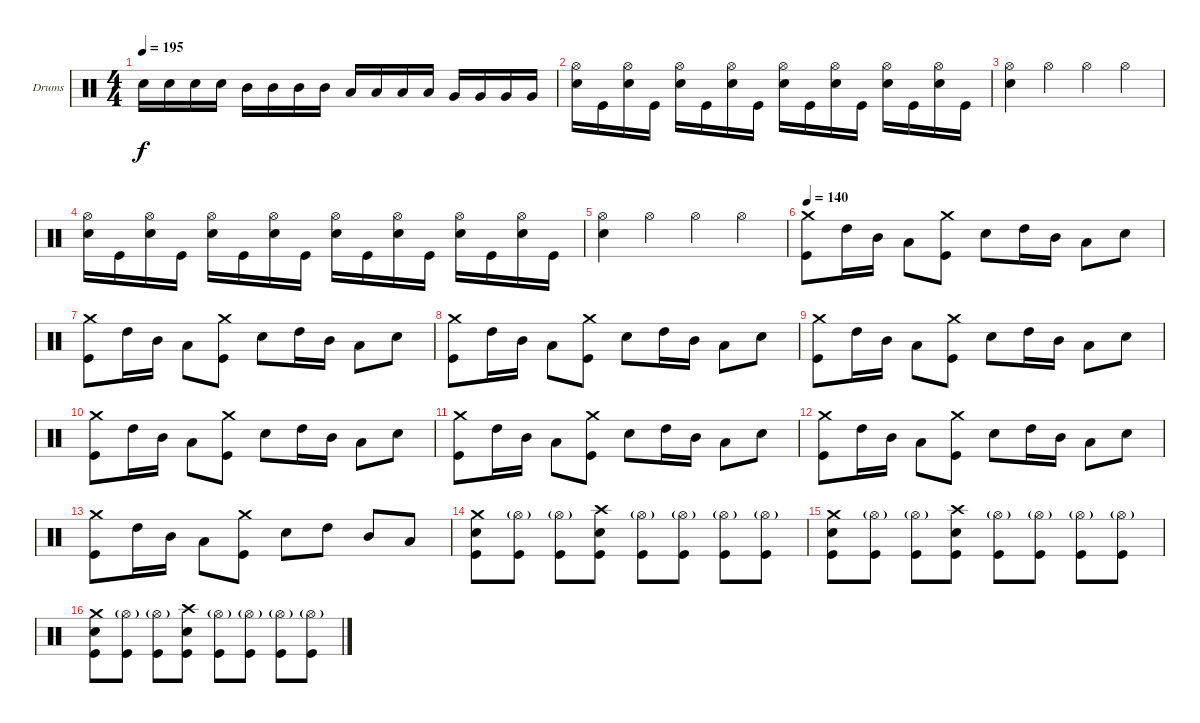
\bracketExtendMode groupsimilarinstruments
\firstSystemTrackNameOrientation horizontal
\otherSystemsTrackNameOrientation horizontal
\track ("Дмитрий Кривенков" "Drums") {instrument percussion}
\staff {score}
\articulation defaults
\ts (4 4)
\tempo 195
\clef neutral
\ks c "Snare (hit) 2".16{dy f} "Snare (hit) 2".16 "Snare (hit) 2".16 "Snare (hit) 2".16 "Mid Tom (hit)".16 "Mid Tom (hit)".16 "Mid Tom (hit)".16 "Mid Tom (hit)".16 "Low Tom (hit)".16 "Low Tom (hit)".16 "Low Tom (hit)".16 "Low Tom (hit)".16 "Very Low Tom (hit)".16 "Very Low Tom (hit)".16 "Very Low Tom (hit)".16 "Very Low Tom (hit)".16
|
("Hi-Hat (open)" "Snare (hit) 2").16 "Kick (hit)".16 ("Hi-Hat (open)" "Snare (hit) 2").16 "Kick (hit)".16 ("Hi-Hat (open)" "Snare (hit) 2").16 "Kick (hit)".16 ("Hi-Hat (open)" "Snare (hit) 2").16 "Kick (hit)".16 ("Hi-Hat (open)" "Snare (hit) 2").16 "Kick (hit)".16 ("Hi-Hat (open)" "Snare (hit) 2").16 "Kick (hit)".16 ("Hi-Hat (open)" "Snare (hit) 2").16 "Kick (hit)".16 ("Hi-Hat (open)" "Snare (hit) 2").16 "Kick (hit)".16 |
("Hi-Hat (open)" "Snare (hit) 2").4 "Hi-Hat (open)".4 "Hi-Hat (open)".4 "Hi-Hat (open)".4 |
("Hi-Hat (open)" "Snare (hit) 2").16 "Kick (hit)".16 ("Hi-Hat (open)" "Snare (hit) 2").16 "Kick (hit)".16 ("Hi-Hat (open)" "Snare (hit) 2").16 "Kick (hit)".16 ("Hi-Hat (open)" "Snare (hit) 2").16 "Kick (hit)".16 ("Hi-Hat (open)" "Snare (hit) 2").16 "Kick (hit)".16 ("Hi-Hat (open)" "Snare (hit) 2").16 "Kick (hit)".16 ("Hi-Hat (open)" "Snare (hit) 2").16 "Kick (hit)".16 ("Hi-Hat (open)" "Snare (hit) 2").16 "Kick (hit)".16 |
("Hi-Hat (open)" "Snare (hit) 2").4 "Hi-Hat (open)".4 "Hi-Hat (open)".4 "Hi-Hat (open)".4 |
\tempo 140
("Crash medium (hit)" "Kick (hit)").8 "High Tom (hit)".16 "Mid Tom (hit)".16 "Low Tom (hit)".8 ("Crash medium (hit)" "Kick (hit)").8 "Snare (hit) 2".8 "High Tom (hit)".16 "Mid Tom (hit)".16 "Low Tom (hit)".8 "Snare (hit) 2".8 |
("Crash medium (hit)" "Kick (hit)").8 "High Tom (hit)".16 "Mid Tom (hit)".16 "Low Tom (hit)".8 ("Crash medium (hit)" "Kick (hit)").8 "Snare (hit) 2".8 "High Tom (hit)".16 "Mid Tom (hit)".16 "Low Tom (hit)".8 "Snare (hit) 2".8 |
("Crash medium (hit)" "Kick (hit)").8 "High Tom (hit)".16 "Mid Tom (hit)".16 "Low Tom (hit)".8 ("Crash medium (hit)" "Kick (hit)").8 "Snare (hit) 2".8 "High Tom (hit)".16 "Mid Tom (hit)".16 "Low Tom (hit)".8 "Snare (hit) 2".8 |
("Crash medium (hit)" "Kick (hit)").8 "High Tom (hit)".16 "Mid Tom (hit)".16 "Low Tom (hit)".8 ("Crash medium (hit)" "Kick (hit)").8 "Snare (hit) 2".8 "High Tom (hit)".16 "Mid Tom (hit)".16 "Low Tom (hit)".8 "Snare (hit) 2".8 |
("Crash medium (hit)" "Kick (hit)").8 "High Tom (hit)".16 "Mid Tom (hit)".16 "Low Tom (hit)".8 ("Crash medium (hit)" "Kick (hit)").8 "Snare (hit) 2".8 "High Tom (hit)".16 "Mid Tom (hit)".16 "Low Tom (hit)".8 "Snare (hit) 2".8 |
("Crash medium (hit)" "Kick (hit)").8 "High Tom (hit)".16 "Mid Tom (hit)".16 "Low Tom (hit)".8 ("Crash medium (hit)" "Kick (hit)").8 "Snare (hit) 2".8 "High Tom (hit)".16 "Mid Tom (hit)".16 "Low Tom (hit)".8 "Snare (hit) 2".8 |
("Crash medium (hit)" "Kick (hit)").8 "High Tom (hit)".16 "Mid Tom (hit)".16 "Low Tom (hit)".8 ("Crash medium (hit)" "Kick (hit)").8 "Snare (hit) 2".8 "High Tom (hit)".16 "Mid Tom (hit)".16 "Low Tom (hit)".8 "Snare (hit) 2".8 |
("Crash medium (hit)" "Kick (hit)").8 "High Tom (hit)".16 "Mid Tom (hit)".16 "Low Tom (hit)".8 ("Crash medium (hit)" "Kick (hit)").8 "Snare (hit) 2".8 "High Tom (hit)".8 "Mid Tom (hit)".8 "Low Tom (hit)".8 |
("Crash medium (hit)" "Snare (hit) 2" "Kick (hit)").8 ("Hi-Hat (open)"{g} "Kick (hit)").8 ("Hi-Hat (open)"{g} "Kick (hit)").8 ("Crash high (hit)" "Snare (hit) 2" "Kick (hit)").8 ("Hi-Hat (open)"{g} "Kick (hit)").8 ("Hi-Hat (open)"{g} "Kick (hit)").8 ("Hi-Hat (open)"{g} "Kick (hit)").8 ("Hi-Hat (open)"{g} "Kick (hit)").8 |
("Crash medium (hit)" "Snare (hit) 2" "Kick (hit)").8 ("Hi-Hat (open)"{g} "Kick (hit)").8 ("Hi-Hat (open)"{g} "Kick (hit)").8 ("Crash high (hit)" "Snare (hit) 2" "Kick (hit)").8 ("Hi-Hat (open)"{g} "Kick (hit)").8 ("Hi-Hat (open)"{g} "Kick (hit)").8 ("Hi-Hat (open)"{g} "Kick (hit)").8 ("Hi-Hat (open)"{g} "Kick (hit)").8 |
("Crash medium (hit)" "Snare (hit) 2" "Kick (hit)").8 ("Hi-Hat (open)"{g} "Kick (hit)").8 ("Hi-Hat (open)"{g} "Kick (hit)").8 ("Crash high (hit)" "Snare (hit) 2" "Kick (hit)").8 ("Hi-Hat (open)"{g} "Kick (hit)").8 ("Hi-Hat (open)"{g} "Kick (hit)").8 ("Hi-Hat (open)"{g} "Kick (hit)").8 ("Hi-Hat (open)"{g} "Kick (hit)").8
